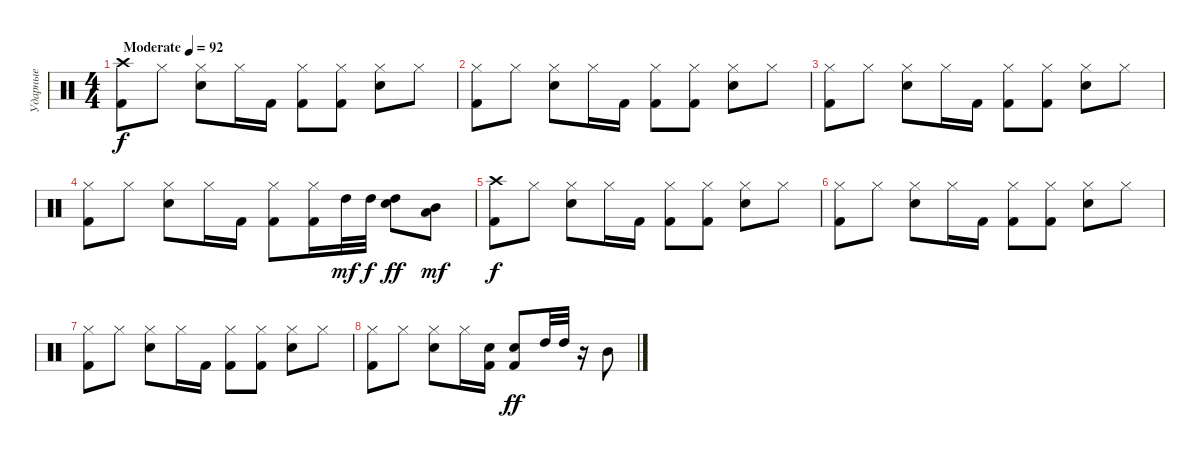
\track ("Ударные" "Ударные") {instrument percussion}
\staff {score}
\articulation defaults
\ts (4 4)
\tempo (92 "Moderate")
\clef neutral
\ks c
("Crash high (hit)" "Kick (hit) 2").8{dy f} "Hi-Hat (closed)".8 ("Hi-Hat (closed)" "Electric Snare (hit)").8 "Hi-Hat (closed)".16 "Kick (hit) 2".16 ("Hi-Hat (closed)" "Kick (hit) 2").8 ("Hi-Hat (closed)" "Kick (hit) 2").8 ("Hi-Hat (closed)" "Electric Snare (hit)").8 "Hi-Hat (closed)".8 |
("Hi-Hat (closed)" "Kick (hit) 2").8 "Hi-Hat (closed)".8 ("Hi-Hat (closed)" "Electric Snare (hit)").8 "Hi-Hat (closed)".16 "Kick (hit) 2".16 ("Hi-Hat (closed)" "Kick (hit) 2").8 ("Hi-Hat (closed)" "Kick (hit) 2").8 ("Hi-Hat (closed)" "Electric Snare (hit)").8 "Hi-Hat (closed)".8 |
("Hi-Hat (closed)" "Kick (hit) 2").8 "Hi-Hat (closed)".8 ("Hi-Hat (closed)" "Electric Snare (hit)").8 "Hi-Hat (closed)".16 "Kick (hit) 2".16 ("Hi-Hat (closed)" "Kick (hit) 2").8 ("Hi-Hat (closed)" "Kick (hit) 2").8 ("Hi-Hat (closed)" "Electric Snare (hit)").8 "Hi-Hat (closed)".8 |
("Hi-Hat (closed)" "Kick (hit) 2").8 "Hi-Hat (closed)".8 ("Hi-Hat (closed)" "Electric Snare (hit)").8 "Hi-Hat (closed)".16 "Kick (hit) 2".16 ("Hi-Hat (closed)" "Kick (hit) 2").8 ("Hi-Hat (closed)" "Kick (hit) 2").16 "High Tom (hit)".32{dy mf} "High Tom (hit)".32{dy f} ("High Tom (hit)" "Electric Snare (hit)").8{dy ff} ("Mid Tom (hit)" "Low Tom (hit)").8{dy mf} |
("Crash high (hit)" "Kick (hit) 2").8{dy f} "Hi-Hat (closed)".8 ("Hi-Hat (closed)" "Electric Snare (hit)").8 "Hi-Hat (closed)".16 "Kick (hit) 2".16 ("Hi-Hat (closed)" "Kick (hit) 2").8 ("Hi-Hat (closed)" "Kick (hit) 2").8 ("Hi-Hat (closed)" "Electric Snare (hit)").8 "Hi-Hat (closed)".8 |
("Hi-Hat (closed)" "Kick (hit) 2").8 "Hi-Hat (closed)".8 ("Hi-Hat (closed)" "Electric Snare (hit)").8 "Hi-Hat (closed)".16 "Kick (hit) 2".16 ("Hi-Hat (closed)" "Kick (hit) 2").8 ("Hi-Hat (closed)" "Kick (hit) 2").8 ("Hi-Hat (closed)" "Electric Snare (hit)").8 "Hi-Hat (closed)".8 |
("Hi-Hat (closed)" "Kick (hit) 2").8 "Hi-Hat (closed)".8 ("Hi-Hat (closed)" "Electric Snare (hit)").8 "Hi-Hat (closed)".16 "Kick (hit) 2".16 ("Hi-Hat (closed)" "Kick (hit) 2").8 ("Hi-Hat (closed)" "Kick (hit) 2").8 ("Hi-Hat (closed)" "Electric Snare (hit)").8 "Hi-Hat (closed)".8 |
("Hi-Hat (closed)" "Kick (hit) 2").8 "Hi-Hat (closed)".8 ("Hi-Hat (closed)" "Electric Snare (hit)").8 "Hi-Hat (closed)".16 ("Electric Snare (hit)" "Kick (hit) 2").16 ("Electric Snare (hit)" "Kick (hit) 2").8{dy ff} "High Tom (hit)".32 "High Tom (hit)".32 r.16 "Mid Tom (hit)".8
